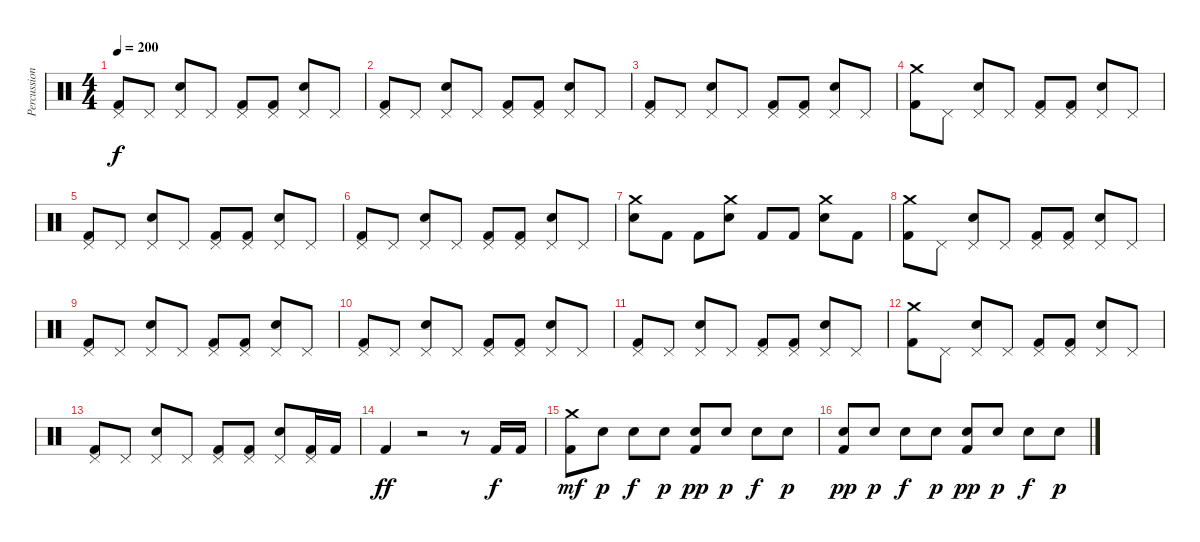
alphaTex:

\track ("Percussion" "Percussion") {instrument percussion}
\staff {score}
\articulation defaults
\ts (4 4)
\tempo 200
\clef neutral
\ks c
("Pedal Hi-Hat (hit)" "Kick (hit) 2").8{dy f} "Pedal Hi-Hat (hit)".8 ("Pedal Hi-Hat (hit)" "Snare (hit) 2").8 "Pedal Hi-Hat (hit)".8 ("Pedal Hi-Hat (hit)" "Kick (hit) 2").8 ("Pedal Hi-Hat (hit)" "Kick (hit) 2").8 ("Pedal Hi-Hat (hit)" "Snare (hit) 2").8 "Pedal Hi-Hat (hit)".8 |
("Pedal Hi-Hat (hit)" "Kick (hit) 2").8 "Pedal Hi-Hat (hit)".8 ("Pedal Hi-Hat (hit)" "Snare (hit) 2").8 "Pedal Hi-Hat (hit)".8 ("Pedal Hi-Hat (hit)" "Kick (hit) 2").8 ("Pedal Hi-Hat (hit)" "Kick (hit) 2").8 ("Pedal Hi-Hat (hit)" "Snare (hit) 2").8 "Pedal Hi-Hat (hit)".8 |
("Pedal Hi-Hat (hit)" "Kick (hit) 2").8 "Pedal Hi-Hat (hit)".8 ("Pedal Hi-Hat (hit)" "Snare (hit) 2").8 "Pedal Hi-Hat (hit)".8 ("Pedal Hi-Hat (hit)" "Kick (hit) 2").8 ("Pedal Hi-Hat (hit)" "Kick (hit) 2").8 ("Pedal Hi-Hat (hit)" "Snare (hit) 2").8 "Pedal Hi-Hat (hit)".8 |
("Crash medium (hit)" "Kick (hit) 2").8 "Pedal Hi-Hat (hit)".8 ("Pedal Hi-Hat (hit)" "Snare (hit) 2").8 "Pedal Hi-Hat (hit)".8 ("Pedal Hi-Hat (hit)" "Kick (hit) 2").8 ("Pedal Hi-Hat (hit)" "Kick (hit) 2").8 ("Pedal Hi-Hat (hit)" "Snare (hit) 2").8 "Pedal Hi-Hat (hit)".8 |
("Pedal Hi-Hat (hit)" "Kick (hit) 2").8 "Pedal Hi-Hat (hit)".8 ("Pedal Hi-Hat (hit)" "Snare (hit) 2").8 "Pedal Hi-Hat (hit)".8 ("Pedal Hi-Hat (hit)" "Kick (hit) 2").8 ("Pedal Hi-Hat (hit)" "Kick (hit) 2").8 ("Pedal Hi-Hat (hit)" "Snare (hit) 2").8 "Pedal Hi-Hat (hit)".8 |
("Pedal Hi-Hat (hit)" "Kick (hit) 2").8 "Pedal Hi-Hat (hit)".8 ("Pedal Hi-Hat (hit)" "Snare (hit) 2").8 "Pedal Hi-Hat (hit)".8 ("Pedal Hi-Hat (hit)" "Kick (hit) 2").8 ("Pedal Hi-Hat (hit)" "Kick (hit) 2").8 ("Pedal Hi-Hat (hit)" "Snare (hit) 2").8 "Pedal Hi-Hat (hit)".8 |
("Crash medium (hit)" "Snare (hit) 2").8 "Kick (hit) 2".8 "Kick (hit) 2".8 ("Crash medium (hit)" "Snare (hit) 2").8 "Kick (hit) 2".8 "Kick (hit) 2".8 ("Crash medium (hit)" "Snare (hit) 2").8 "Kick (hit) 2".8 |
("Crash medium (hit)" "Kick (hit) 2").8 "Pedal Hi-Hat (hit)".8 ("Pedal Hi-Hat (hit)" "Snare (hit) 2").8 "Pedal Hi-Hat (hit)".8 ("Pedal Hi-Hat (hit)" "Kick (hit) 2").8 ("Pedal Hi-Hat (hit)" "Kick (hit) 2").8 ("Pedal Hi-Hat (hit)" "Snare (hit) 2").8 "Pedal Hi-Hat (hit)".8 |
("Pedal Hi-Hat (hit)" "Kick (hit) 2").8 "Pedal Hi-Hat (hit)".8 ("Pedal Hi-Hat (hit)" "Snare (hit) 2").8 "Pedal Hi-Hat (hit)".8 ("Pedal Hi-Hat (hit)" "Kick (hit) 2").8 ("Pedal Hi-Hat (hit)" "Kick (hit) 2").8 ("Pedal Hi-Hat (hit)" "Snare (hit) 2").8 "Pedal Hi-Hat (hit)".8 |
("Pedal Hi-Hat (hit)" "Kick (hit) 2").8 "Pedal Hi-Hat (hit)".8 ("Pedal Hi-Hat (hit)" "Snare (hit) 2").8 "Pedal Hi-Hat (hit)".8 ("Pedal Hi-Hat (hit)" "Kick (hit) 2").8 ("Pedal Hi-Hat (hit)" "Kick (hit) 2").8 ("Pedal Hi-Hat (hit)" "Snare (hit) 2").8 "Pedal Hi-Hat (hit)".8 |
("Pedal Hi-Hat (hit)" "Kick (hit) 2").8 "Pedal Hi-Hat (hit)".8 ("Pedal Hi-Hat (hit)" "Snare (hit) 2").8 "Pedal Hi-Hat (hit)".8 ("Pedal Hi-Hat (hit)" "Kick (hit) 2").8 ("Pedal Hi-Hat (hit)" "Kick (hit) 2").8 ("Pedal Hi-Hat (hit)" "Snare (hit) 2").8 "Pedal Hi-Hat (hit)".8 |
("Crash medium (hit)" "Kick (hit) 2").8 "Pedal Hi-Hat (hit)".8 ("Pedal Hi-Hat (hit)" "Snare (hit) 2").8 "Pedal Hi-Hat (hit)".8 ("Pedal Hi-Hat (hit)" "Kick (hit) 2").8 ("Pedal Hi-Hat (hit)" "Kick (hit) 2").8 ("Pedal Hi-Hat (hit)" "Snare (hit) 2").8 "Pedal Hi-Hat (hit)".8 |
("Pedal Hi-Hat (hit)" "Kick (hit) 2").8 "Pedal Hi-Hat (hit)".8 ("Pedal Hi-Hat (hit)" "Snare (hit) 2").8 "Pedal Hi-Hat (hit)".8 ("Pedal Hi-Hat (hit)" "Kick (hit) 2").8 ("Pedal Hi-Hat (hit)" "Kick (hit) 2").8 ("Pedal Hi-Hat (hit)" "Snare (hit) 2").8 ("Pedal Hi-Hat (hit)" "Kick (hit) 2").16 "Kick (hit) 2".16 |
"Kick (hit) 2".4{dy ff} r.2 r.8 "Kick (hit) 2".16{dy f} "Kick (hit) 2".16 |
("Crash medium (hit)" "Kick (hit) 2").8{dy mf} "Snare (hit) 2".8{dy p} "Snare (hit) 2".8{dy f} "Snare (hit) 2".8{dy p} ("Snare (hit) 2" "Kick (hit) 2").8{dy pp} "Snare (hit) 2".8{dy p} "Snare (hit) 2".8{dy f} "Snare (hit) 2".8{dy p} |
("Snare (hit) 2" "Kick (hit) 2").8{dy pp} "Snare (hit) 2".8{dy p} "Snare (hit) 2".8{dy f} "Snare (hit) 2".8{dy p} ("Snare (hit) 2" "Kick (hit) 2").8{dy pp} "Snare (hit) 2".8{dy p} "Snare (hit) 2".8{dy f} "Snare (hit) 2".8{dy p}
